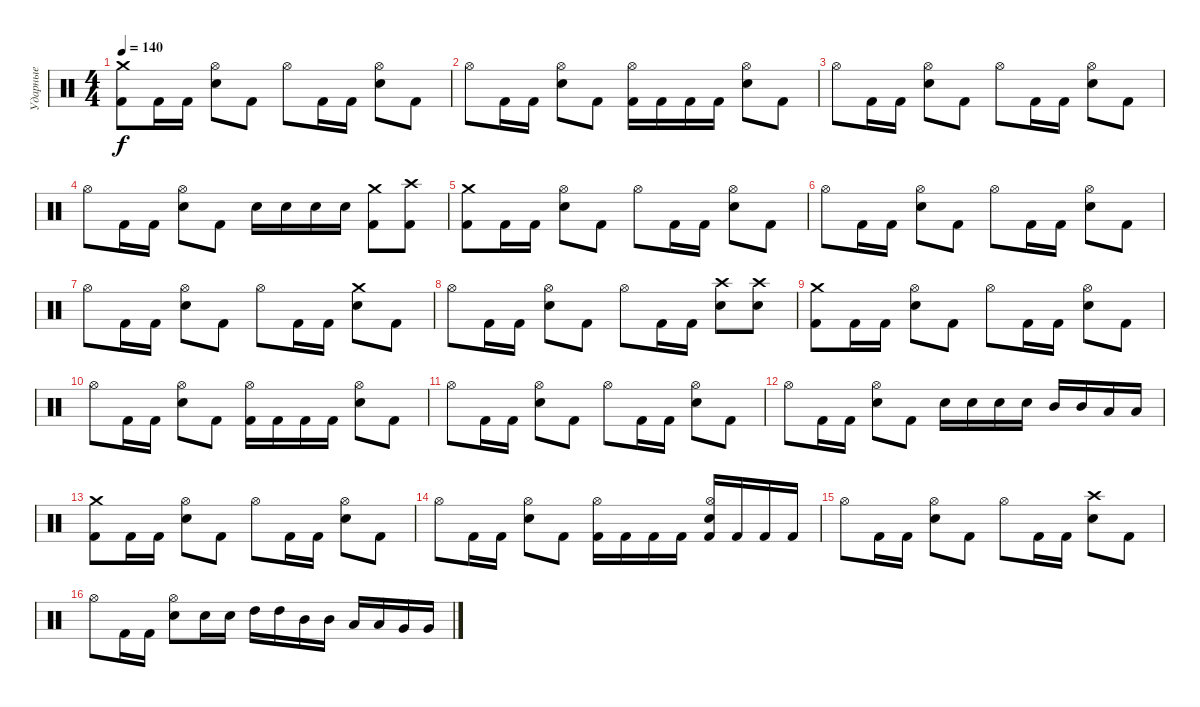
\track ("Ударные" "Ударные") {instrument percussion}
\staff {score}
\articulation defaults
\ts (4 4)
\tempo 140
\clef neutral
\ks c
("Crash medium (hit)" "Kick (hit) 2").8{dy f} "Kick (hit) 2".16 "Kick (hit) 2".16 ("Hi-Hat (open)" "Electric Snare (hit)").8 "Kick (hit) 2".8 "Hi-Hat (open)".8 "Kick (hit) 2".16 "Kick (hit) 2".16 ("Hi-Hat (open)" "Electric Snare (hit)").8 "Kick (hit) 2".8 |
"Hi-Hat (open)".8 "Kick (hit) 2".16 "Kick (hit) 2".16 ("Hi-Hat (open)" "Electric Snare (hit)").8 "Kick (hit) 2".8 ("Hi-Hat (open)" "Kick (hit) 2").16 "Kick (hit) 2".16 "Kick (hit) 2".16 "Kick (hit) 2".16 ("Hi-Hat (open)" "Electric Snare (hit)").8 "Kick (hit) 2".8 |
"Hi-Hat (open)".8 "Kick (hit) 2".16 "Kick (hit) 2".16 ("Hi-Hat (open)" "Electric Snare (hit)").8 "Kick (hit) 2".8 "Hi-Hat (open)".8 "Kick (hit) 2".16 "Kick (hit) 2".16 ("Hi-Hat (open)" "Electric Snare (hit)").8 "Kick (hit) 2".8 |
"Hi-Hat (open)".8 "Kick (hit) 2".16 "Kick (hit) 2".16 ("Hi-Hat (open)" "Electric Snare (hit)").8 "Kick (hit) 2".8 "Electric Snare (hit)".16 "Electric Snare (hit)".16 "Electric Snare (hit)".16 "Electric Snare (hit)".16 ("Crash medium (hit)" "Kick (hit) 2").8 ("Crash high (hit)" "Kick (hit) 2").8 |
("Crash medium (hit)" "Kick (hit) 2").8 "Kick (hit) 2".16 "Kick (hit) 2".16 ("Hi-Hat (open)" "Electric Snare (hit)").8 "Kick (hit) 2".8 "Hi-Hat (open)".8 "Kick (hit) 2".16 "Kick (hit) 2".16 ("Hi-Hat (open)" "Electric Snare (hit)").8 "Kick (hit) 2".8 |
"Hi-Hat (open)".8 "Kick (hit) 2".16 "Kick (hit) 2".16 ("Hi-Hat (open)" "Electric Snare (hit)").8 "Kick (hit) 2".8 "Hi-Hat (open)".8 "Kick (hit) 2".16 "Kick (hit) 2".16 ("Hi-Hat (open)" "Electric Snare (hit)").8 "Kick (hit) 2".8 |
"Hi-Hat (open)".8 "Kick (hit) 2".16 "Kick (hit) 2".16 ("Hi-Hat (open)" "Electric Snare (hit)").8 "Kick (hit) 2".8 "Hi-Hat (open)".8 "Kick (hit) 2".16 "Kick (hit) 2".16 ("Crash medium (hit)" "Electric Snare (hit)").8 "Kick (hit) 2".8 |
"Hi-Hat (open)".8 "Kick (hit) 2".16 "Kick (hit) 2".16 ("Hi-Hat (open)" "Electric Snare (hit)").8 "Kick (hit) 2".8 "Hi-Hat (open)".8 "Kick (hit) 2".16 "Kick (hit) 2".16 ("Crash high (hit)" "Electric Snare (hit)").8 ("Crash high (hit)" "Electric Snare (hit)").8 |
("Crash medium (hit)" "Kick (hit) 2").8 "Kick (hit) 2".16 "Kick (hit) 2".16 ("Hi-Hat (open)" "Electric Snare (hit)").8 "Kick (hit) 2".8 "Hi-Hat (open)".8 "Kick (hit) 2".16 "Kick (hit) 2".16 ("Hi-Hat (open)" "Electric Snare (hit)").8 "Kick (hit) 2".8 |
"Hi-Hat (open)".8 "Kick (hit) 2".16 "Kick (hit) 2".16 ("Hi-Hat (open)" "Electric Snare (hit)").8 "Kick (hit) 2".8 ("Hi-Hat (open)" "Kick (hit) 2").16 "Kick (hit) 2".16 "Kick (hit) 2".16 "Kick (hit) 2".16 ("Hi-Hat (open)" "Electric Snare (hit)").8 "Kick (hit) 2".8 |
"Hi-Hat (open)".8 "Kick (hit) 2".16 "Kick (hit) 2".16 ("Hi-Hat (open)" "Electric Snare (hit)").8 "Kick (hit) 2".8 "Hi-Hat (open)".8 "Kick (hit) 2".16 "Kick (hit) 2".16 ("Hi-Hat (open)" "Electric Snare (hit)").8 "Kick (hit) 2".8 |
"Hi-Hat (open)".8 "Kick (hit) 2".16 "Kick (hit) 2".16 ("Hi-Hat (open)" "Electric Snare (hit)").8 "Kick (hit) 2".8 "Electric Snare (hit)".16 "Electric Snare (hit)".16 "Electric Snare (hit)".16 "Electric Snare (hit)".16 "Mid Tom (hit)".16 "Mid Tom (hit)".16 "Low Tom (hit)".16 "Low Tom (hit)".16 |
("Crash medium (hit)" "Kick (hit) 2").8 "Kick (hit) 2".16 "Kick (hit) 2".16 ("Hi-Hat (open)" "Electric Snare (hit)").8 "Kick (hit) 2".8 "Hi-Hat (open)".8 "Kick (hit) 2".16 "Kick (hit) 2".16 ("Hi-Hat (open)" "Electric Snare (hit)").8 "Kick (hit) 2".8 |
"Hi-Hat (open)".8 "Kick (hit) 2".16 "Kick (hit) 2".16 ("Hi-Hat (open)" "Electric Snare (hit)").8 "Kick (hit) 2".8 ("Hi-Hat (open)" "Kick (hit) 2").16 "Kick (hit) 2".16 "Kick (hit) 2".16 "Kick (hit) 2".16 ("Hi-Hat (open)" "Electric Snare (hit)" "Kick (hit) 2").16 "Kick (hit) 2".16 "Kick (hit) 2".16 "Kick (hit) 2".16 |
"Hi-Hat (open)".8 "Kick (hit) 2".16 "Kick (hit) 2".16 ("Hi-Hat (open)" "Electric Snare (hit)").8 "Kick (hit) 2".8 "Hi-Hat (open)".8 "Kick (hit) 2".16 "Kick (hit) 2".16 ("Crash high (hit)" "Electric Snare (hit)").8 "Kick (hit) 2".8 |
"Hi-Hat (open)".8 "Kick (hit) 2".16 "Kick (hit) 2".16 ("Hi-Hat (open)" "Electric Snare (hit)").8 "Electric Snare (hit)".16 "Electric Snare (hit)".16 "High Tom (hit)".16 "High Tom (hit)".16 "Mid Tom (hit)".16 "Mid Tom (hit)".16 "Low Tom (hit)".16 "Low Tom (hit)".16 "Very Low Tom (hit)".16 "Very Low Tom (hit)".16
